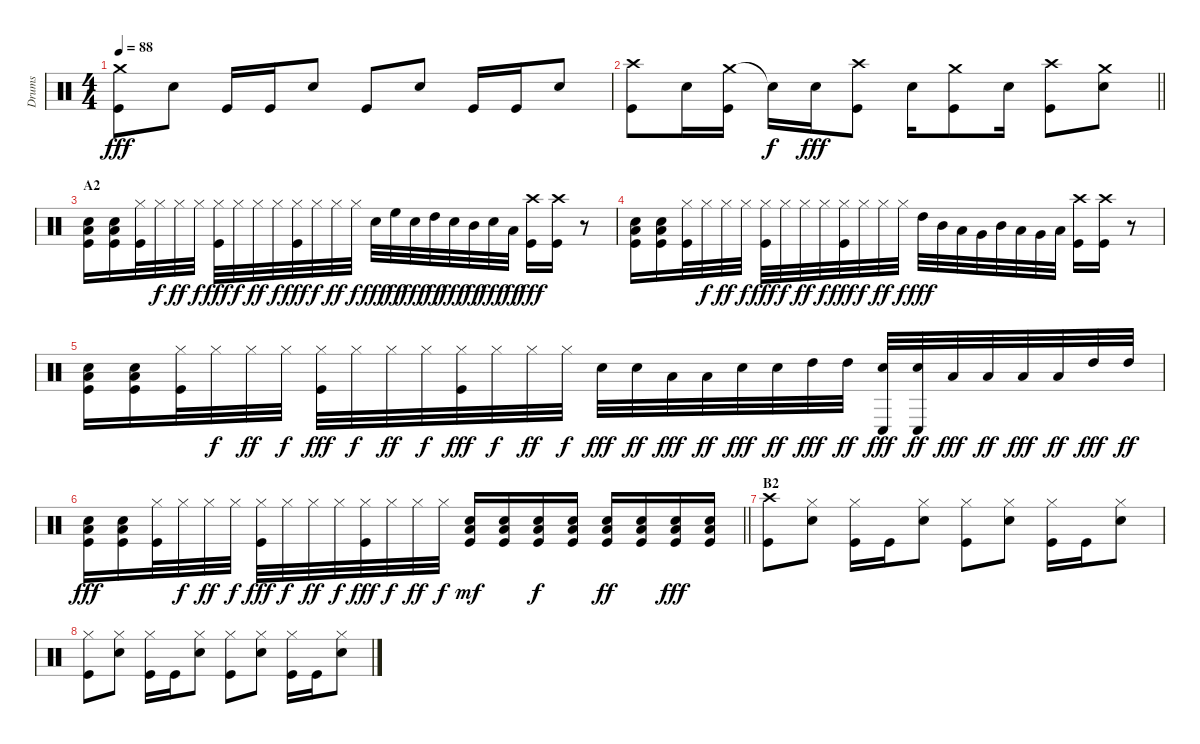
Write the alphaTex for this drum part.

\track ("Drums" "Drums") {instrument percussion}
\staff {score}
\articulation defaults
\ts (4 4)
\tempo 88
\clef neutral
\ks c
("Crash medium (hit)" "Kick (hit)").8{dy fff} "Snare (hit) 2".8 "Kick (hit)".16 "Kick (hit)".16 "Snare (hit) 2".8 "Kick (hit)".8 "Snare (hit) 2".8 "Kick (hit)".16 "Kick (hit)".16 "Snare (hit) 2".8 |
\barLineRight lightlight
("Crash high (hit)" "Kick (hit)").8 "Snare (hit) 2".16 ("Crash medium (hit)" "Kick (hit)").16 "Snare (hit)"{t}.16{dy f} "Snare (hit) 2".16{dy fff} ("Crash high (hit)" "Kick (hit)").8 "Snare (hit) 2".16 ("Crash medium (hit)" "Kick (hit)").8 "Snare (hit) 2".16 ("Crash high (hit)" "Kick (hit)").8 ("Crash medium (hit)" "Snare (hit) 2").8 |
\section ("" "A2")
("Low Floor Tom (hit)" "Snare (hit) 2" "Kick (hit)").16 ("Low Floor Tom (hit)" "Snare (hit) 2" "Kick (hit)").16 ("Hi-Hat (closed)" "Kick (hit)").32 "Hi-Hat (closed)".32{dy f} "Hi-Hat (closed)".32{dy ff} "Hi-Hat (closed)".32{dy f} ("Hi-Hat (closed)" "Kick (hit)").32{dy fff} "Hi-Hat (closed)".32{dy f} "Hi-Hat (closed)".32{dy ff} "Hi-Hat (closed)".32{dy f} ("Hi-Hat (closed)" "Kick (hit)").32{dy fff} "Hi-Hat (closed)".32{dy f} "Hi-Hat (closed)".32{dy ff} "Hi-Hat (closed)".32{dy f} "Snare (hit) 2".32{dy fff} "High Floor Tom (hit)".32{dy ff} "Snare (hit) 2".32{dy fff} "High Tom (hit)".32{dy ff} "Snare (hit) 2".32{dy fff} "Mid Tom (hit)".32{dy ff} "Snare (hit) 2".32{dy fff} "Low Tom (hit)".32{dy ff} ("Crash high (hit)" "Kick (hit)").16{dy fff} ("Crash high (hit)" "Kick (hit)").16 r.8 |
("Low Floor Tom (hit)" "Snare (hit) 2" "Kick (hit)").16 ("Low Floor Tom (hit)" "Snare (hit) 2" "Kick (hit)").16 ("Hi-Hat (closed)" "Kick (hit)").32 "Hi-Hat (closed)".32{dy f} "Hi-Hat (closed)".32{dy ff} "Hi-Hat (closed)".32{dy f} ("Hi-Hat (closed)" "Kick (hit)").32{dy fff} "Hi-Hat (closed)".32{dy f} "Hi-Hat (closed)".32{dy ff} "Hi-Hat (closed)".32{dy f} ("Hi-Hat (closed)" "Kick (hit)").32{dy fff} "Hi-Hat (closed)".32{dy f} "Hi-Hat (closed)".32{dy ff} "Hi-Hat (closed)".32{dy f} "High Tom (hit)".32{dy fff} "Mid Tom (hit)".32 "Low Tom (hit)".32 "Very Low Tom (hit)".32 "Mid Tom (hit)".32 "Low Tom (hit)".32 "Very Low Tom (hit)".32 "Low Floor Tom (hit)".32 ("Crash high (hit)" "Kick (hit)").16 ("Crash high (hit)" "Kick (hit)").16 r.8 |
("Low Floor Tom (hit)" "Snare (hit) 2" "Kick (hit)").16 ("Low Floor Tom (hit)" "Snare (hit) 2" "Kick (hit)").16 ("Hi-Hat (closed)" "Kick (hit)").32 "Hi-Hat (closed)".32{dy f} "Hi-Hat (closed)".32{dy ff} "Hi-Hat (closed)".32{dy f} ("Hi-Hat (closed)" "Kick (hit)").32{dy fff} "Hi-Hat (closed)".32{dy f} "Hi-Hat (closed)".32{dy ff} "Hi-Hat (closed)".32{dy f} ("Hi-Hat (closed)" "Kick (hit)").32{dy fff} "Hi-Hat (closed)".32{dy f} "Hi-Hat (closed)".32{dy ff} "Hi-Hat (closed)".32{dy f} "Snare (hit) 2".32{dy fff} "Snare (hit) 2".32{dy ff} "Low Floor Tom (hit)".32{dy fff} "Low Floor Tom (hit)".32{dy ff} "Snare (hit) 2".32{dy fff} "Snare (hit) 2".32{dy ff} "High Tom (hit)".32{dy fff} "High Tom (hit)".32{dy ff} ("Conga low (hit)" "Snare (hit) 2").32{dy fff} ("Conga low (hit)" "Snare (hit) 2").32{dy ff} "Low Floor Tom (hit)".32{dy fff} "Low Floor Tom (hit)".32{dy ff} "Low Tom (hit)".32{dy fff} "Low Tom (hit)".32{dy ff} "High Tom (hit)".32{dy fff} "High Tom (hit)".32{dy ff} |
\barLineRight lightlight
("Low Floor Tom (hit)" "Snare (hit) 2" "Kick (hit)").16{dy fff} ("Low Floor Tom (hit)" "Snare (hit) 2" "Kick (hit)").16 ("Hi-Hat (closed)" "Kick (hit)").32 "Hi-Hat (closed)".32{dy f} "Hi-Hat (closed)".32{dy ff} "Hi-Hat (closed)".32{dy f} ("Hi-Hat (closed)" "Kick (hit)").32{dy fff} "Hi-Hat (closed)".32{dy f} "Hi-Hat (closed)".32{dy ff} "Hi-Hat (closed)".32{dy f} ("Hi-Hat (closed)" "Kick (hit)").32{dy fff} "Hi-Hat (closed)".32{dy f} "Hi-Hat (closed)".32{dy ff} "Hi-Hat (closed)".32{dy f} ("Low Tom (hit)" "Snare (hit) 2" "Kick (hit)").16{dy mf} ("Low Tom (hit)" "Snare (hit) 2" "Kick (hit)").16 ("Low Tom (hit)" "Snare (hit) 2" "Kick (hit)").16{dy f} ("Low Tom (hit)" "Snare (hit) 2" "Kick (hit)").16 ("Low Tom (hit)" "Snare (hit) 2" "Kick (hit)").16{dy ff} ("Low Tom (hit)" "Snare (hit) 2" "Kick (hit)").16 ("Low Tom (hit)" "Snare (hit) 2" "Kick (hit)").16{dy fff} ("Low Tom (hit)" "Snare (hit) 2" "Kick (hit)").16 |
\section ("" "B2")
("Crash high (hit)" "Kick (hit)").8 ("Hi-Hat (closed)" "Snare (hit) 2").8 ("Hi-Hat (closed)" "Kick (hit)").16 "Kick (hit)".16 ("Hi-Hat (closed)" "Snare (hit) 2").8 ("Hi-Hat (closed)" "Kick (hit)").8 ("Hi-Hat (closed)" "Snare (hit) 2").8 ("Hi-Hat (closed)" "Kick (hit)").16 "Kick (hit)".16 ("Hi-Hat (closed)" "Snare (hit) 2").8 |
("Hi-Hat (closed)" "Kick (hit)").8 ("Hi-Hat (closed)" "Snare (hit) 2").8 ("Hi-Hat (closed)" "Kick (hit)").16 "Kick (hit)".16 ("Hi-Hat (closed)" "Snare (hit) 2").8 ("Hi-Hat (closed)" "Kick (hit)").8 ("Hi-Hat (closed)" "Snare (hit) 2").8 ("Hi-Hat (closed)" "Kick (hit)").16 "Kick (hit)".16 ("Hi-Hat (closed)" "Snare (hit) 2").8
